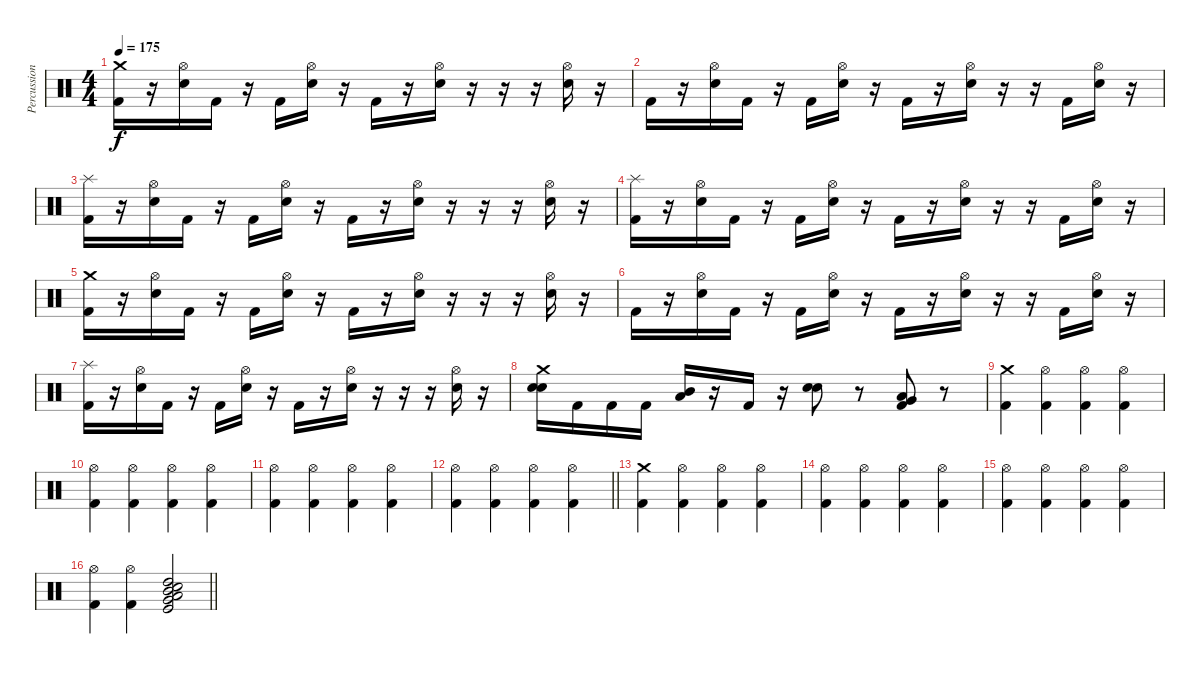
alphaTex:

\track ("Percussion" "Percussion") {instrument percussion}
\staff {score}
\articulation defaults
\ts (4 4)
\tempo 175
\clef neutral
\ks c
("Crash medium (hit)" "Kick (hit) 2").16{dy f} r.16 ("Hi-Hat (open)" "Electric Snare (hit)").16 "Kick (hit) 2".16 r.16 "Kick (hit) 2".16 ("Hi-Hat (open)" "Electric Snare (hit)").16 r.16 "Kick (hit) 2".16 r.16 ("Hi-Hat (open)" "Electric Snare (hit)").16 r.16 r.16 r.16 ("Hi-Hat (open)" "Electric Snare (hit)").16 r.16 |
"Kick (hit) 2".16 r.16 ("Hi-Hat (open)" "Electric Snare (hit)").16 "Kick (hit) 2".16 r.16 "Kick (hit) 2".16 ("Hi-Hat (open)" "Electric Snare (hit)").16 r.16 "Kick (hit) 2".16 r.16 ("Hi-Hat (open)" "Electric Snare (hit)").16 r.16 r.16 "Kick (hit) 2".16 ("Hi-Hat (open)" "Electric Snare (hit)").16 r.16 |
("Splash (hit)" "Kick (hit) 2").16 r.16 ("Hi-Hat (open)" "Electric Snare (hit)").16 "Kick (hit) 2".16 r.16 "Kick (hit) 2".16 ("Hi-Hat (open)" "Electric Snare (hit)").16 r.16 "Kick (hit) 2".16 r.16 ("Hi-Hat (open)" "Electric Snare (hit)").16 r.16 r.16 r.16 ("Hi-Hat (open)" "Electric Snare (hit)").16 r.16 |
("Splash (hit)" "Kick (hit) 2").16 r.16 ("Hi-Hat (open)" "Electric Snare (hit)").16 "Kick (hit) 2".16 r.16 "Kick (hit) 2".16 ("Hi-Hat (open)" "Electric Snare (hit)").16 r.16 "Kick (hit) 2".16 r.16 ("Hi-Hat (open)" "Electric Snare (hit)").16 r.16 r.16 "Kick (hit) 2".16 ("Hi-Hat (open)" "Electric Snare (hit)").16 r.16 |
("Crash medium (hit)" "Kick (hit) 2").16 r.16 ("Hi-Hat (open)" "Electric Snare (hit)").16 "Kick (hit) 2".16 r.16 "Kick (hit) 2".16 ("Hi-Hat (open)" "Electric Snare (hit)").16 r.16 "Kick (hit) 2".16 r.16 ("Hi-Hat (open)" "Electric Snare (hit)").16 r.16 r.16 r.16 ("Hi-Hat (open)" "Electric Snare (hit)").16 r.16 |
"Kick (hit) 2".16 r.16 ("Hi-Hat (open)" "Electric Snare (hit)").16 "Kick (hit) 2".16 r.16 "Kick (hit) 2".16 ("Hi-Hat (open)" "Electric Snare (hit)").16 r.16 "Kick (hit) 2".16 r.16 ("Hi-Hat (open)" "Electric Snare (hit)").16 r.16 r.16 "Kick (hit) 2".16 ("Hi-Hat (open)" "Electric Snare (hit)").16 r.16 |
("Splash (hit)" "Kick (hit) 2").16 r.16 ("Hi-Hat (open)" "Electric Snare (hit)").16 "Kick (hit) 2".16 r.16 "Kick (hit) 2".16 ("Hi-Hat (open)" "Electric Snare (hit)").16 r.16 "Kick (hit) 2".16 r.16 ("Hi-Hat (open)" "Electric Snare (hit)").16 r.16 r.16 r.16 ("Hi-Hat (open)" "Electric Snare (hit)").16 r.16 |
("Crash medium (hit)" "Electric Snare (hit)" "Electric Snare (hit)").16{bd 60} "Kick (hit) 2".16 "Kick (hit) 2".16 "Kick (hit) 2".16 ("Low Tom (hit)" "Mid Tom (hit)").16{bd 60} r.16 "Kick (hit) 2".16 r.16 ("Electric Snare (hit)" "Electric Snare (hit)").8{bd 60} r.8 ("Very Low Tom (hit)" "Low Tom (hit)" "Kick (hit) 2").8{bd 60} r.8 |
("Kick (hit) 2" "Crash medium (hit)").4 ("Hi-Hat (open)" "Kick (hit) 2").4 ("Hi-Hat (open)" "Kick (hit) 2").4 ("Hi-Hat (open)" "Kick (hit) 2").4 |
("Hi-Hat (open)" "Kick (hit) 2").4 ("Hi-Hat (open)" "Kick (hit) 2").4 ("Hi-Hat (open)" "Kick (hit) 2").4 ("Hi-Hat (open)" "Kick (hit) 2").4 |
("Hi-Hat (open)" "Kick (hit) 2").4 ("Hi-Hat (open)" "Kick (hit) 2").4 ("Hi-Hat (open)" "Kick (hit) 2").4 ("Hi-Hat (open)" "Kick (hit) 2").4 |
\barLineRight lightlight
("Hi-Hat (open)" "Kick (hit) 2").4 ("Hi-Hat (open)" "Kick (hit) 2").4 ("Hi-Hat (open)" "Kick (hit) 2").4 ("Hi-Hat (open)" "Kick (hit) 2").4 |
("Kick (hit) 2" "Crash medium (hit)").4 ("Hi-Hat (open)" "Kick (hit) 2").4 ("Hi-Hat (open)" "Kick (hit) 2").4 ("Hi-Hat (open)" "Kick (hit) 2").4 |
("Hi-Hat (open)" "Kick (hit) 2").4 ("Hi-Hat (open)" "Kick (hit) 2").4 ("Hi-Hat (open)" "Kick (hit) 2").4 ("Hi-Hat (open)" "Kick (hit) 2").4 |
("Hi-Hat (open)" "Kick (hit) 2").4 ("Hi-Hat (open)" "Kick (hit) 2").4 ("Hi-Hat (open)" "Kick (hit) 2").4 ("Hi-Hat (open)" "Kick (hit) 2").4 |
\barLineRight lightlight
("Hi-Hat (open)" "Kick (hit) 2").4 ("Hi-Hat (open)" "Kick (hit) 2").4 ("Electric Snare (hit)" "High Tom (hit)" "Low Tom (hit)" "Mid Tom (hit)" "Kick (hit)" "Very Low Tom (hit)").2{bu 60}
